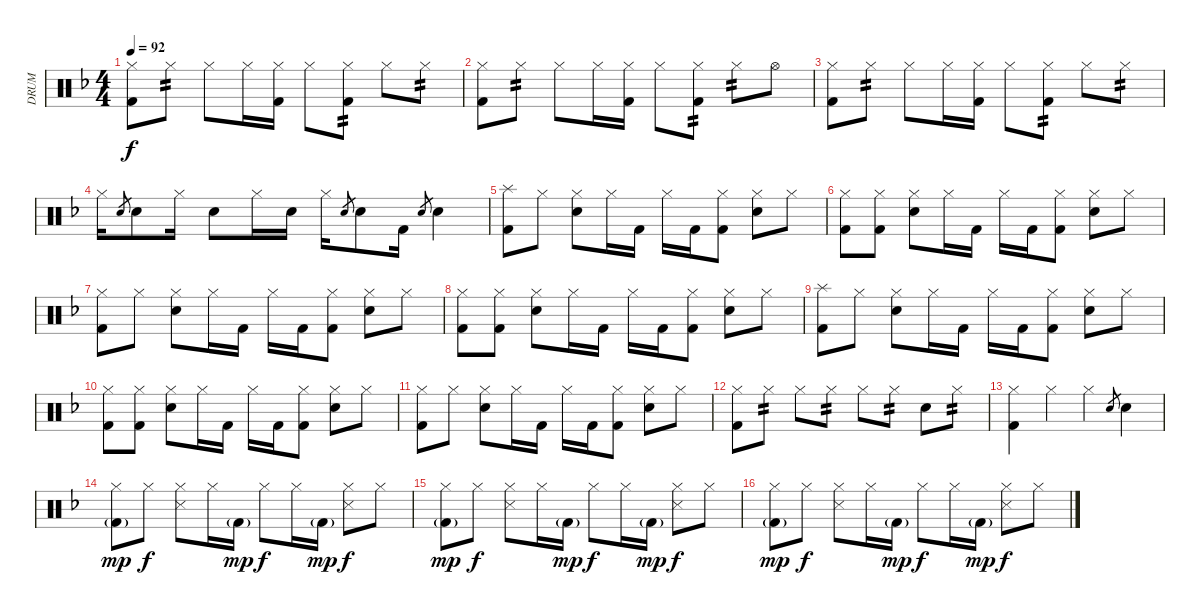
\track ("DRUM" "DRUM") {instrument percussion}
\staff {score}
\articulation defaults
\ts (4 4)
\tempo 92
\clef neutral
\ks f
("Hi-Hat (closed)" "Kick (hit) 2").8{dy f} "Hi-Hat (closed)".8{tp 2} "Hi-Hat (closed)".8 "Hi-Hat (closed)".16 ("Hi-Hat (closed)" "Kick (hit) 2").16 "Hi-Hat (closed)".8 ("Hi-Hat (closed)" "Kick (hit) 2").8{tp 2} "Hi-Hat (closed)".8 "Hi-Hat (closed)".8{tp 2} |
("Hi-Hat (closed)" "Kick (hit) 2").8 "Hi-Hat (closed)".8{tp 2} "Hi-Hat (closed)".8 "Hi-Hat (closed)".16 ("Hi-Hat (closed)" "Kick (hit) 2").16 "Hi-Hat (closed)".8 ("Hi-Hat (closed)" "Kick (hit) 2").8{tp 2} "Hi-Hat (closed)".8{tp 2} "Hi-Hat (open)".8 |
("Hi-Hat (closed)" "Kick (hit) 2").8 "Hi-Hat (closed)".8{tp 2} "Hi-Hat (closed)".8 "Hi-Hat (closed)".16 ("Hi-Hat (closed)" "Kick (hit) 2").16 "Hi-Hat (closed)".8 ("Hi-Hat (closed)" "Kick (hit) 2").8{tp 2} "Hi-Hat (closed)".8 "Hi-Hat (closed)".8{tp 2} |
"Hi-Hat (closed)".16 "Electric Snare (hit)".8{gr} "Electric Snare (hit)".8 "Hi-Hat (closed)".16 "Electric Snare (hit)".8 "Hi-Hat (closed)".16 "Electric Snare (hit)".16 "Hi-Hat (closed)".16 "Electric Snare (hit)".8{gr} "Electric Snare (hit)".8 "Kick (hit) 2".16 "Electric Snare (hit)".8{gr} "Electric Snare (hit)".4 |
("Splash (hit)" "Kick (hit) 2").8 "Hi-Hat (closed)".8 ("Hi-Hat (closed)" "Electric Snare (hit)").8 "Hi-Hat (closed)".16 "Kick (hit) 2".16 "Hi-Hat (closed)".16 "Kick (hit) 2".16 ("Hi-Hat (closed)" "Kick (hit) 2").8 ("Hi-Hat (closed)" "Electric Snare (hit)").8 "Hi-Hat (closed)".8 |
("Hi-Hat (closed)" "Kick (hit) 2").8 ("Hi-Hat (closed)" "Kick (hit) 2").8 ("Hi-Hat (closed)" "Electric Snare (hit)").8 "Hi-Hat (closed)".16 "Kick (hit) 2".16 "Hi-Hat (closed)".16 "Kick (hit) 2".16 ("Hi-Hat (closed)" "Kick (hit) 2").8 ("Hi-Hat (closed)" "Electric Snare (hit)").8 "Hi-Hat (closed)".8 |
("Hi-Hat (closed)" "Kick (hit) 2").8 "Hi-Hat (closed)".8 ("Hi-Hat (closed)" "Electric Snare (hit)").8 "Hi-Hat (closed)".16 "Kick (hit) 2".16 "Hi-Hat (closed)".16 "Kick (hit) 2".16 ("Hi-Hat (closed)" "Kick (hit) 2").8 ("Hi-Hat (closed)" "Electric Snare (hit)").8 "Hi-Hat (closed)".8 |
("Hi-Hat (closed)" "Kick (hit) 2").8 ("Hi-Hat (closed)" "Kick (hit) 2").8 ("Hi-Hat (closed)" "Electric Snare (hit)").8 "Hi-Hat (closed)".16 "Kick (hit) 2".16 "Hi-Hat (closed)".16 "Kick (hit) 2".16 ("Hi-Hat (closed)" "Kick (hit) 2").8 ("Hi-Hat (closed)" "Electric Snare (hit)").8 "Hi-Hat (closed)".8 |
("Splash (hit)" "Kick (hit) 2").8 "Hi-Hat (closed)".8 ("Hi-Hat (closed)" "Electric Snare (hit)").8 "Hi-Hat (closed)".16 "Kick (hit) 2".16 "Hi-Hat (closed)".16 "Kick (hit) 2".16 ("Hi-Hat (closed)" "Kick (hit) 2").8 ("Hi-Hat (closed)" "Electric Snare (hit)").8 "Hi-Hat (closed)".8 |
("Hi-Hat (closed)" "Kick (hit) 2").8 ("Hi-Hat (closed)" "Kick (hit) 2").8 ("Hi-Hat (closed)" "Electric Snare (hit)").8 "Hi-Hat (closed)".16 "Kick (hit) 2".16 "Hi-Hat (closed)".16 "Kick (hit) 2".16 ("Hi-Hat (closed)" "Kick (hit) 2").8 ("Hi-Hat (closed)" "Electric Snare (hit)").8 "Hi-Hat (closed)".8 |
("Hi-Hat (closed)" "Kick (hit) 2").8 "Hi-Hat (closed)".8 ("Hi-Hat (closed)" "Electric Snare (hit)").8 "Hi-Hat (closed)".16 "Kick (hit) 2".16 "Hi-Hat (closed)".16 "Kick (hit) 2".16 ("Hi-Hat (closed)" "Kick (hit) 2").8 ("Hi-Hat (closed)" "Electric Snare (hit)").8 "Hi-Hat (closed)".8 |
("Hi-Hat (closed)" "Kick (hit) 2").8 "Hi-Hat (closed)".8{tp 2} "Hi-Hat (closed)".8 "Hi-Hat (closed)".8{tp 2} "Hi-Hat (closed)".8 "Hi-Hat (closed)".8{tp 2} "Electric Snare (hit)".8 "Hi-Hat (closed)".8{tp 2} |
("Hi-Hat (closed)" "Kick (hit) 2").4 "Hi-Hat (closed)".4 "Hi-Hat (closed)".4 "Electric Snare (hit)".8{gr} "Electric Snare (hit)".4 |
("Hi-Hat (closed)" "Kick (hit) 2"{g}).8{dy mp} "Hi-Hat (closed)".8{dy f} ("Hi-Hat (closed)" "Snare (side stick) 3").8 "Hi-Hat (closed)".16 "Kick (hit) 2"{g}.16{dy mp} "Hi-Hat (closed)".8{dy f} "Hi-Hat (closed)".16 "Kick (hit) 2"{g}.16{dy mp} ("Hi-Hat (closed)" "Snare (side stick) 3").8{dy f} "Hi-Hat (closed)".8 |
("Hi-Hat (closed)" "Kick (hit) 2"{g}).8{dy mp} "Hi-Hat (closed)".8{dy f} ("Hi-Hat (closed)" "Snare (side stick) 3").8 "Hi-Hat (closed)".16 "Kick (hit) 2"{g}.16{dy mp} "Hi-Hat (closed)".8{dy f} "Hi-Hat (closed)".16 "Kick (hit) 2"{g}.16{dy mp} ("Hi-Hat (closed)" "Snare (side stick) 3").8{dy f} "Hi-Hat (closed)".8 |
("Hi-Hat (closed)" "Kick (hit) 2"{g}).8{dy mp} "Hi-Hat (closed)".8{dy f} ("Hi-Hat (closed)" "Snare (side stick) 3").8 "Hi-Hat (closed)".16 "Kick (hit) 2"{g}.16{dy mp} "Hi-Hat (closed)".8{dy f} "Hi-Hat (closed)".16 "Kick (hit) 2"{g}.16{dy mp} ("Hi-Hat (closed)" "Snare (side stick) 3").8{dy f} "Hi-Hat (closed)".8
